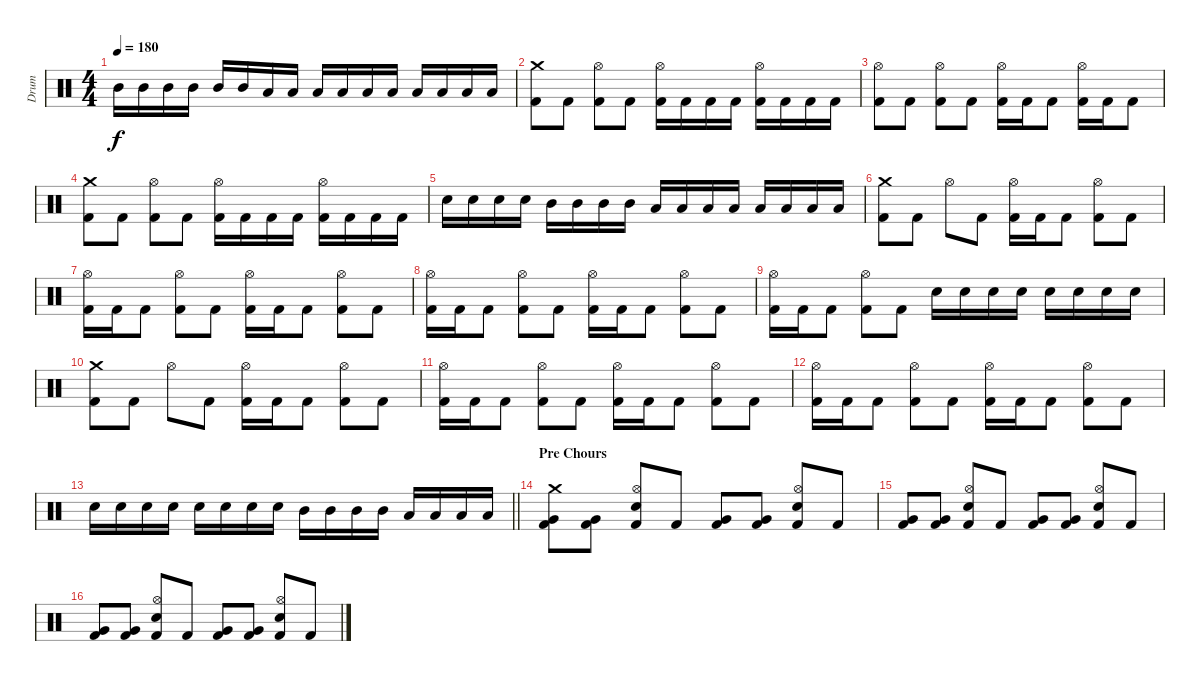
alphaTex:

\track ("Drum" "Drum") {instrument percussion}
\staff
\articulation defaults
\ts (4 4)
\tempo 180
\clef neutral
\ks c "Mid Tom (hit)".16{dy f} "Mid Tom (hit)".16 "Mid Tom (hit)".16 "Mid Tom (hit)".16 "Mid Tom (hit)".16 "Mid Tom (hit)".16 "Low Tom (hit)".16 "Low Tom (hit)".16 "Low Tom (hit)".16 "Low Tom (hit)".16 "Low Tom (hit)".16 "Low Tom (hit)".16 "Low Floor Tom (hit)".16 "Low Floor Tom (hit)".16 "Low Floor Tom (hit)".16 "Low Floor Tom (hit)".16
|
("Crash medium (hit)" "Kick (hit) 2").8 "Kick (hit) 2".8 ("Hi-Hat (open)" "Kick (hit) 2").8 "Kick (hit) 2".8 ("Hi-Hat (open)" "Kick (hit) 2").16 "Kick (hit) 2".16 "Kick (hit) 2".16 "Kick (hit) 2".16 ("Hi-Hat (open)" "Kick (hit) 2").16 "Kick (hit) 2".16 "Kick (hit) 2".16 "Kick (hit) 2".16 |
("Hi-Hat (open)" "Kick (hit) 2").8 "Kick (hit) 2".8 ("Hi-Hat (open)" "Kick (hit) 2").8 "Kick (hit) 2".8 ("Hi-Hat (open)" "Kick (hit) 2").16 "Kick (hit) 2".16 "Kick (hit) 2".8 ("Hi-Hat (open)" "Kick (hit) 2").16 "Kick (hit) 2".16 "Kick (hit) 2".8 |
("Crash medium (hit)" "Kick (hit) 2").8 "Kick (hit) 2".8 ("Hi-Hat (open)" "Kick (hit) 2").8 "Kick (hit) 2".8 ("Hi-Hat (open)" "Kick (hit) 2").16 "Kick (hit) 2".16 "Kick (hit) 2".16 "Kick (hit) 2".16 ("Hi-Hat (open)" "Kick (hit) 2").16 "Kick (hit) 2".16 "Kick (hit) 2".16 "Kick (hit) 2".16 |
"Electric Snare (hit)".16 "Electric Snare (hit)".16 "Electric Snare (hit)".16 "Electric Snare (hit)".16 "Mid Tom (hit)".16 "Mid Tom (hit)".16 "Mid Tom (hit)".16 "Mid Tom (hit)".16 "Low Tom (hit)".16 "Low Tom (hit)".16 "Low Tom (hit)".16 "Low Tom (hit)".16 "Low Floor Tom (hit)".16 "Low Floor Tom (hit)".16 "Low Floor Tom (hit)".16 "Low Floor Tom (hit)".16 |
("Crash medium (hit)" "Kick (hit) 2").8 "Kick (hit) 2".8 "Hi-Hat (open)".8 "Kick (hit) 2".8 ("Hi-Hat (open)" "Kick (hit) 2").16 "Kick (hit) 2".16 "Kick (hit) 2".8 ("Hi-Hat (open)" "Kick (hit) 2").8 "Kick (hit) 2".8 |
("Hi-Hat (open)" "Kick (hit) 2").16 "Kick (hit) 2".16 "Kick (hit) 2".8 ("Hi-Hat (open)" "Kick (hit) 2").8 "Kick (hit) 2".8 ("Hi-Hat (open)" "Kick (hit) 2").16 "Kick (hit) 2".16 "Kick (hit) 2".8 ("Hi-Hat (open)" "Kick (hit) 2").8 "Kick (hit) 2".8 |
("Hi-Hat (open)" "Kick (hit) 2").16 "Kick (hit) 2".16 "Kick (hit) 2".8 ("Hi-Hat (open)" "Kick (hit) 2").8 "Kick (hit) 2".8 ("Hi-Hat (open)" "Kick (hit) 2").16 "Kick (hit) 2".16 "Kick (hit) 2".8 ("Hi-Hat (open)" "Kick (hit) 2").8 "Kick (hit) 2".8 |
("Hi-Hat (open)" "Kick (hit) 2").16 "Kick (hit) 2".16 "Kick (hit) 2".8 ("Hi-Hat (open)" "Kick (hit) 2").8 "Kick (hit) 2".8 "Electric Snare (hit)".16 "Electric Snare (hit)".16 "Electric Snare (hit)".16 "Electric Snare (hit)".16 "Electric Snare (hit)".16 "Electric Snare (hit)".16 "Electric Snare (hit)".16 "Electric Snare (hit)".16 |
("Crash medium (hit)" "Kick (hit) 2").8 "Kick (hit) 2".8 "Hi-Hat (open)".8 "Kick (hit) 2".8 ("Hi-Hat (open)" "Kick (hit) 2").16 "Kick (hit) 2".16 "Kick (hit) 2".8 ("Hi-Hat (open)" "Kick (hit) 2").8 "Kick (hit) 2".8 |
("Hi-Hat (open)" "Kick (hit) 2").16 "Kick (hit) 2".16 "Kick (hit) 2".8 ("Hi-Hat (open)" "Kick (hit) 2").8 "Kick (hit) 2".8 ("Hi-Hat (open)" "Kick (hit) 2").16 "Kick (hit) 2".16 "Kick (hit) 2".8 ("Hi-Hat (open)" "Kick (hit) 2").8 "Kick (hit) 2".8 |
("Hi-Hat (open)" "Kick (hit) 2").16 "Kick (hit) 2".16 "Kick (hit) 2".8 ("Hi-Hat (open)" "Kick (hit) 2").8 "Kick (hit) 2".8 ("Hi-Hat (open)" "Kick (hit) 2").16 "Kick (hit) 2".16 "Kick (hit) 2".8 ("Hi-Hat (open)" "Kick (hit) 2").8 "Kick (hit) 2".8 |
\barLineRight lightlight "Electric Snare (hit)".16 "Electric Snare (hit)".16 "Electric Snare (hit)".16 "Electric Snare (hit)".16 "Electric Snare (hit)".16 "Electric Snare (hit)".16 "Electric Snare (hit)".16 "Electric Snare (hit)".16 "Mid Tom (hit)".16 "Mid Tom (hit)".16 "Mid Tom (hit)".16 "Mid Tom (hit)".16 "Low Tom (hit)".16 "Low Tom (hit)".16 "Low Tom (hit)".16 "Low Tom (hit)".16
|
\section ("" "Pre Chours")
("Crash medium (hit)" "Very Low Tom (hit)" "Kick (hit) 2").8 ("Very Low Tom (hit)" "Kick (hit) 2").8 ("Hi-Hat (open)" "Electric Snare (hit)" "Kick (hit) 2").8 "Kick (hit) 2".8 ("Very Low Tom (hit)" "Kick (hit) 2").8 ("Very Low Tom (hit)" "Kick (hit) 2").8 ("Hi-Hat (open)" "Electric Snare (hit)" "Kick (hit) 2").8 "Kick (hit) 2".8 |
("Very Low Tom (hit)" "Kick (hit) 2").8 ("Very Low Tom (hit)" "Kick (hit) 2").8 ("Hi-Hat (open)" "Electric Snare (hit)" "Kick (hit) 2").8 "Kick (hit) 2".8 ("Very Low Tom (hit)" "Kick (hit) 2").8 ("Very Low Tom (hit)" "Kick (hit) 2").8 ("Hi-Hat (open)" "Electric Snare (hit)" "Kick (hit) 2").8 "Kick (hit) 2".8 |
("Very Low Tom (hit)" "Kick (hit) 2").8 ("Very Low Tom (hit)" "Kick (hit) 2").8 ("Hi-Hat (open)" "Electric Snare (hit)" "Kick (hit) 2").8 "Kick (hit) 2".8 ("Very Low Tom (hit)" "Kick (hit) 2").8 ("Very Low Tom (hit)" "Kick (hit) 2").8 ("Hi-Hat (open)" "Electric Snare (hit)" "Kick (hit) 2").8 "Kick (hit) 2".8
